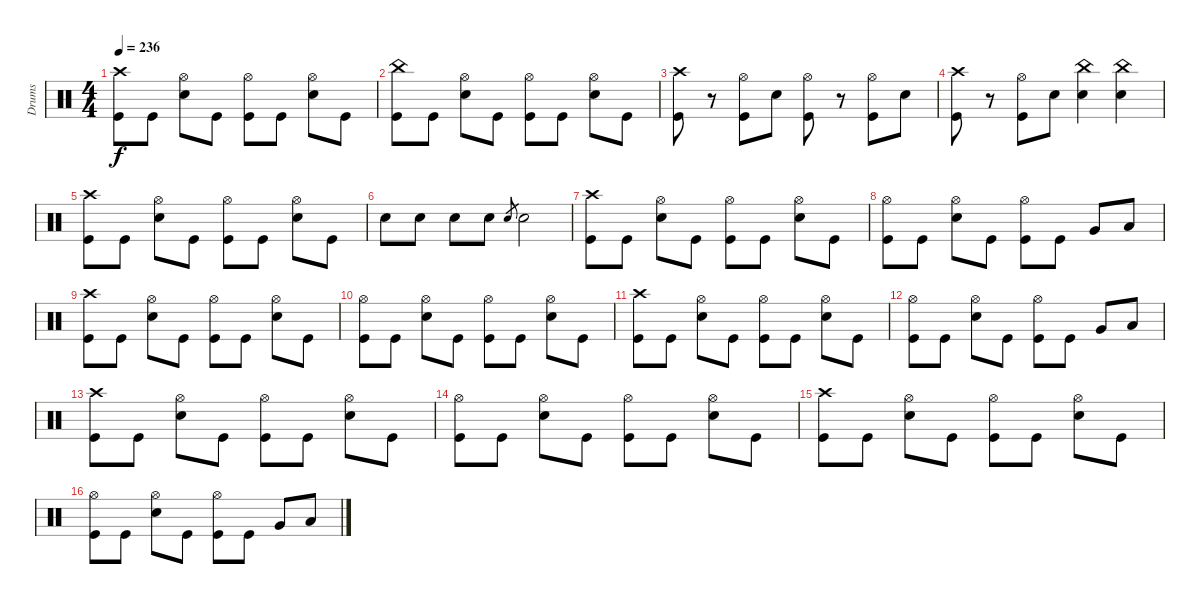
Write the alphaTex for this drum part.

\track ("Drums" "Drums") {instrument percussion}
\staff {score}
\articulation defaults
\ts (4 4)
\tempo 236
\clef neutral
\ks c
("Crash high (hit)" "Kick (hit)").8{dy f} "Kick (hit)".8 ("Hi-Hat (open)" "Snare (hit) 2").8 "Kick (hit)".8 ("Hi-Hat (open)" "Kick (hit)").8 "Kick (hit)".8 ("Hi-Hat (open)" "Snare (hit) 2").8 "Kick (hit)".8 |
("China (hit)" "Kick (hit)").8 "Kick (hit)".8 ("Hi-Hat (open)" "Snare (hit) 2").8 "Kick (hit)".8 ("Hi-Hat (open)" "Kick (hit)").8 "Kick (hit)".8 ("Hi-Hat (open)" "Snare (hit) 2").8 "Kick (hit)".8 |
("Crash high (hit)" "Kick (hit)").8 r.8 ("Hi-Hat (open)" "Kick (hit)").8 "Snare (hit) 2".8 ("Hi-Hat (open)" "Kick (hit)").8 r.8 ("Hi-Hat (open)" "Kick (hit)").8 "Snare (hit) 2".8 |
("Crash high (hit)" "Kick (hit)").8 r.8 ("Hi-Hat (open)" "Kick (hit)").8 "Snare (hit) 2".8 ("China (hit)" "Snare (hit) 2").4 ("China (hit)" "Snare (hit) 2").4 |
("Crash high (hit)" "Kick (hit)").8 "Kick (hit)".8 ("Hi-Hat (open)" "Snare (hit) 2").8 "Kick (hit)".8 ("Hi-Hat (open)" "Kick (hit)").8 "Kick (hit)".8 ("Hi-Hat (open)" "Snare (hit) 2").8 "Kick (hit)".8 |
"Snare (hit) 2".8 "Snare (hit) 2".8 "Snare (hit) 2".8 "Snare (hit) 2".8 "Snare (hit) 2".8{gr} "Snare (hit) 2".2 |
("Crash high (hit)" "Kick (hit)").8 "Kick (hit)".8 ("Hi-Hat (open)" "Snare (hit) 2").8 "Kick (hit)".8 ("Hi-Hat (open)" "Kick (hit)").8 "Kick (hit)".8 ("Hi-Hat (open)" "Snare (hit) 2").8 "Kick (hit)".8 |
("Hi-Hat (open)" "Kick (hit)").8 "Kick (hit)".8 ("Hi-Hat (open)" "Snare (hit) 2").8 "Kick (hit)".8 ("Hi-Hat (open)" "Kick (hit)").8 "Kick (hit)".8 "Very Low Tom (hit)".8 "Low Tom (hit)".8 |
("Crash high (hit)" "Kick (hit)").8 "Kick (hit)".8 ("Hi-Hat (open)" "Snare (hit) 2").8 "Kick (hit)".8 ("Hi-Hat (open)" "Kick (hit)").8 "Kick (hit)".8 ("Hi-Hat (open)" "Snare (hit) 2").8 "Kick (hit)".8 |
("Hi-Hat (open)" "Kick (hit)").8 "Kick (hit)".8 ("Hi-Hat (open)" "Snare (hit) 2").8 "Kick (hit)".8 ("Hi-Hat (open)" "Kick (hit)").8 "Kick (hit)".8 ("Hi-Hat (open)" "Snare (hit) 2").8 "Kick (hit)".8 |
("Crash high (hit)" "Kick (hit)").8 "Kick (hit)".8 ("Hi-Hat (open)" "Snare (hit) 2").8 "Kick (hit)".8 ("Hi-Hat (open)" "Kick (hit)").8 "Kick (hit)".8 ("Hi-Hat (open)" "Snare (hit) 2").8 "Kick (hit)".8 |
("Hi-Hat (open)" "Kick (hit)").8 "Kick (hit)".8 ("Hi-Hat (open)" "Snare (hit) 2").8 "Kick (hit)".8 ("Hi-Hat (open)" "Kick (hit)").8 "Kick (hit)".8 "Very Low Tom (hit)".8 "Low Tom (hit)".8 |
("Crash high (hit)" "Kick (hit)").8 "Kick (hit)".8 ("Hi-Hat (open)" "Snare (hit) 2").8 "Kick (hit)".8 ("Hi-Hat (open)" "Kick (hit)").8 "Kick (hit)".8 ("Hi-Hat (open)" "Snare (hit) 2").8 "Kick (hit)".8 |
("Hi-Hat (open)" "Kick (hit)").8 "Kick (hit)".8 ("Hi-Hat (open)" "Snare (hit) 2").8 "Kick (hit)".8 ("Hi-Hat (open)" "Kick (hit)").8 "Kick (hit)".8 ("Hi-Hat (open)" "Snare (hit) 2").8 "Kick (hit)".8 |
("Crash high (hit)" "Kick (hit)").8 "Kick (hit)".8 ("Hi-Hat (open)" "Snare (hit) 2").8 "Kick (hit)".8 ("Hi-Hat (open)" "Kick (hit)").8 "Kick (hit)".8 ("Hi-Hat (open)" "Snare (hit) 2").8 "Kick (hit)".8 |
("Hi-Hat (open)" "Kick (hit)").8 "Kick (hit)".8 ("Hi-Hat (open)" "Snare (hit) 2").8 "Kick (hit)".8 ("Hi-Hat (open)" "Kick (hit)").8 "Kick (hit)".8 "Very Low Tom (hit)".8 "Low Tom (hit)".8
